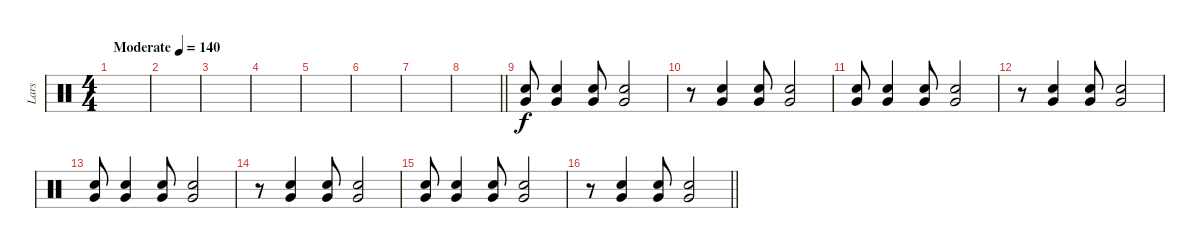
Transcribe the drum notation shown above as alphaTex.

\track ("Lars" "Lars") {instrument percussion}
\staff {score}
\articulation defaults
\ts (4 4)
\tempo (140 "Moderate")
\clef neutral
\ks c
|
|
|
|
|
|
|
\barLineRight lightlight
|
\section ("" "")
("Electric Snare (hit)" "Very Low Tom (hit)").8 ("Electric Snare (hit)" "Very Low Tom (hit)").4 ("Electric Snare (hit)" "Very Low Tom (hit)").8 ("Electric Snare (hit)" "Very Low Tom (hit)").2 |
r.8 ("Electric Snare (hit)" "Very Low Tom (hit)").4 ("Electric Snare (hit)" "Very Low Tom (hit)").8 ("Electric Snare (hit)" "Very Low Tom (hit)").2 |
("Electric Snare (hit)" "Very Low Tom (hit)").8 ("Electric Snare (hit)" "Very Low Tom (hit)").4 ("Electric Snare (hit)" "Very Low Tom (hit)").8 ("Electric Snare (hit)" "Very Low Tom (hit)").2 |
r.8 ("Electric Snare (hit)" "Very Low Tom (hit)").4 ("Electric Snare (hit)" "Very Low Tom (hit)").8 ("Electric Snare (hit)" "Very Low Tom (hit)").2 |
("Electric Snare (hit)" "Very Low Tom (hit)").8 ("Electric Snare (hit)" "Very Low Tom (hit)").4 ("Electric Snare (hit)" "Very Low Tom (hit)").8 ("Electric Snare (hit)" "Very Low Tom (hit)").2 |
r.8 ("Electric Snare (hit)" "Very Low Tom (hit)").4 ("Electric Snare (hit)" "Very Low Tom (hit)").8 ("Electric Snare (hit)" "Very Low Tom (hit)").2 |
("Electric Snare (hit)" "Very Low Tom (hit)").8 ("Electric Snare (hit)" "Very Low Tom (hit)").4 ("Electric Snare (hit)" "Very Low Tom (hit)").8 ("Electric Snare (hit)" "Very Low Tom (hit)").2 |
\barLineRight lightlight
r.8 ("Electric Snare (hit)" "Very Low Tom (hit)").4 ("Electric Snare (hit)" "Very Low Tom (hit)").8 ("Electric Snare (hit)" "Very Low Tom (hit)").2
